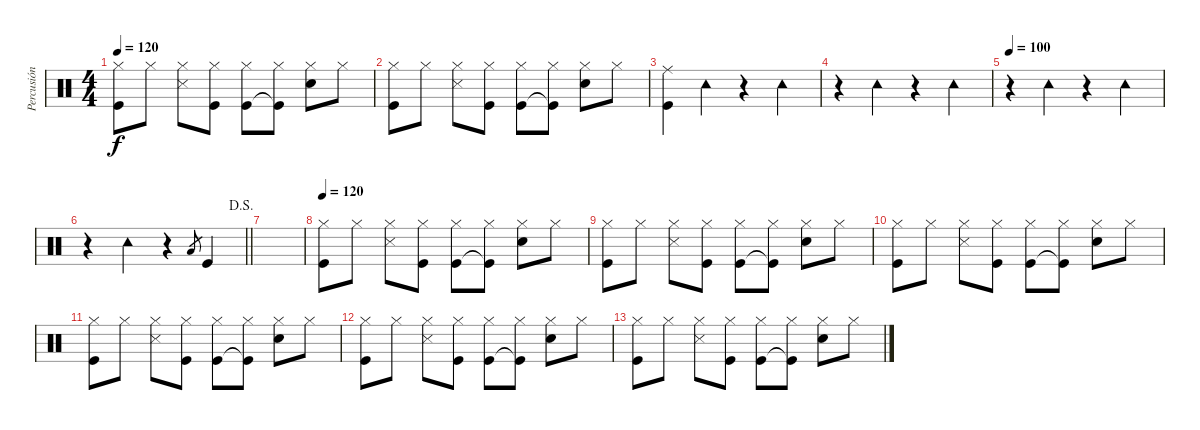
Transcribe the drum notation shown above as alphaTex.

\track ("Percusión" "Percusión") {instrument percussion}
\staff {score}
\articulation defaults
\ts (4 4)
\tempo 120
\clef neutral
\ks c
("Hi-Hat (closed)" "Kick (hit)").8{dy f} "Hi-Hat (closed)".8 ("Hi-Hat (closed)" "Snare (side stick) 3").8 ("Hi-Hat (closed)" "Kick (hit)").8 ("Hi-Hat (closed)" "Kick (hit)").8 ("Hi-Hat (closed)" "Kick (hit)"{t}).8 ("Hi-Hat (closed)" "Snare (hit) 2").8 "Hi-Hat (closed)".8 |
("Hi-Hat (closed)" "Kick (hit)").8 "Hi-Hat (closed)".8 ("Hi-Hat (closed)" "Snare (side stick) 3").8 ("Hi-Hat (closed)" "Kick (hit)").8 ("Hi-Hat (closed)" "Kick (hit)").8 ("Hi-Hat (closed)" "Kick (hit)"{t}).8 ("Hi-Hat (closed)" "Snare (hit) 2").8 "Hi-Hat (closed)".8 |
("Kick (hit)" "Ride (middle)").4 "Tambourine (hit)".4 r.4 "Tambourine (hit)".4 |
r.4 "Tambourine (hit)".4 r.4 "Tambourine (hit)".4 |
\tempo 100
r.4 "Tambourine (hit)".4 r.4 "Tambourine (hit)".4 |
\jump dalsegno
\barLineRight lightlight
r.4 "Tambourine (hit)".4 r.4 "Low Tom (hit)"{h}.8{gr} "Kick (hit)".4 |
|
\tempo 120
("Hi-Hat (closed)" "Kick (hit)").8 "Hi-Hat (closed)".8 ("Hi-Hat (closed)" "Snare (side stick) 3").8 ("Hi-Hat (closed)" "Kick (hit)").8 ("Hi-Hat (closed)" "Kick (hit)").8 ("Hi-Hat (closed)" "Kick (hit)"{t}).8 ("Hi-Hat (closed)" "Snare (hit) 2").8 "Hi-Hat (closed)".8 |
("Hi-Hat (closed)" "Kick (hit)").8 "Hi-Hat (closed)".8 ("Hi-Hat (closed)" "Snare (side stick) 3").8 ("Hi-Hat (closed)" "Kick (hit)").8 ("Hi-Hat (closed)" "Kick (hit)").8 ("Hi-Hat (closed)" "Kick (hit)"{t}).8 ("Hi-Hat (closed)" "Snare (hit) 2").8 "Hi-Hat (closed)".8 |
("Hi-Hat (closed)" "Kick (hit)").8 "Hi-Hat (closed)".8 ("Hi-Hat (closed)" "Snare (side stick) 3").8 ("Hi-Hat (closed)" "Kick (hit)").8 ("Hi-Hat (closed)" "Kick (hit)").8 ("Hi-Hat (closed)" "Kick (hit)"{t}).8 ("Hi-Hat (closed)" "Snare (hit) 2").8 "Hi-Hat (closed)".8 |
("Hi-Hat (closed)" "Kick (hit)").8 "Hi-Hat (closed)".8 ("Hi-Hat (closed)" "Snare (side stick) 3").8 ("Hi-Hat (closed)" "Kick (hit)").8 ("Hi-Hat (closed)" "Kick (hit)").8 ("Hi-Hat (closed)" "Kick (hit)"{t}).8 ("Hi-Hat (closed)" "Snare (hit) 2").8 "Hi-Hat (closed)".8 |
("Hi-Hat (closed)" "Kick (hit)").8 "Hi-Hat (closed)".8 ("Hi-Hat (closed)" "Snare (side stick) 3").8 ("Hi-Hat (closed)" "Kick (hit)").8 ("Hi-Hat (closed)" "Kick (hit)").8 ("Hi-Hat (closed)" "Kick (hit)"{t}).8 ("Hi-Hat (closed)" "Snare (hit) 2").8 "Hi-Hat (closed)".8 |
("Hi-Hat (closed)" "Kick (hit)").8 "Hi-Hat (closed)".8 ("Hi-Hat (closed)" "Snare (side stick) 3").8 ("Hi-Hat (closed)" "Kick (hit)").8 ("Hi-Hat (closed)" "Kick (hit)").8 ("Hi-Hat (closed)" "Kick (hit)"{t}).8 ("Hi-Hat (closed)" "Snare (hit) 2").8 "Hi-Hat (closed)".8
